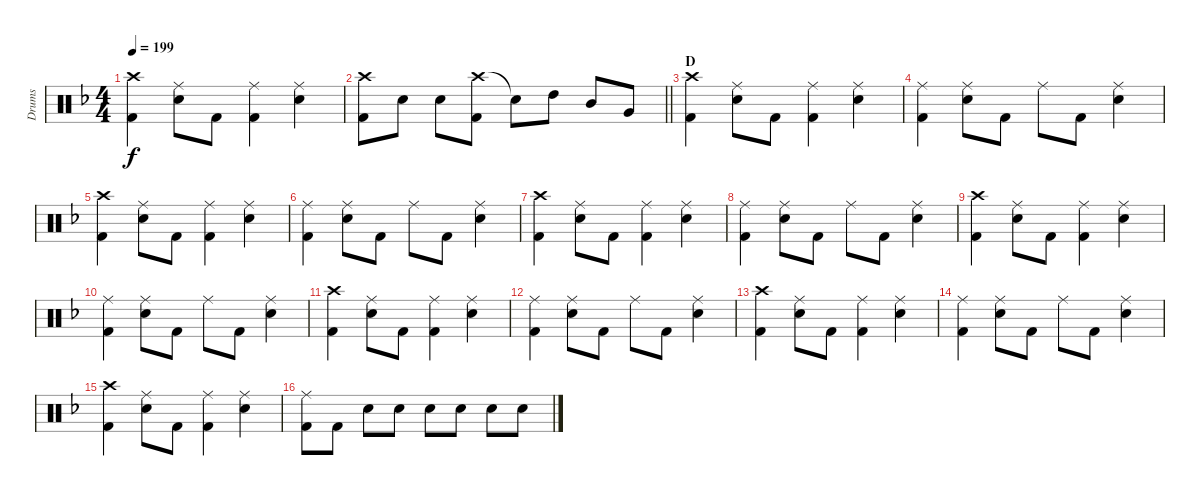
\track ("Drums" "Drums") {instrument percussion}
\staff {score}
\articulation defaults
\ts (4 4)
\tempo 199
\clef neutral
\ks f
("Crash high (hit)" "Kick (hit) 2").4{dy f} ("Ride (middle)" "Snare (hit) 2").8 "Kick (hit) 2".8 ("Ride (middle)" "Kick (hit) 2").4 ("Ride (middle)" "Snare (hit) 2").4 |
\barLineRight lightlight
("Crash high (hit)" "Kick (hit) 2").8 "Snare (hit) 2".8 "Snare (hit) 2".8 ("Crash high (hit)" "Kick (hit) 2").8 "Snare (hit)"{t}.8 "High Tom (hit)".8 "Mid Tom (hit)".8 "Very Low Tom (hit)".8 |
\section ("" "D")
("Crash high (hit)" "Kick (hit) 2").4 ("Ride (middle)" "Snare (hit) 2").8 "Kick (hit) 2".8 ("Ride (middle)" "Kick (hit) 2").4 ("Ride (middle)" "Snare (hit) 2").4 |
("Ride (middle)" "Kick (hit) 2").4 ("Ride (middle)" "Snare (hit) 2").8 "Kick (hit) 2".8 "Ride (middle)".8 "Kick (hit) 2".8 ("Ride (middle)" "Snare (hit) 2").4 |
("Crash high (hit)" "Kick (hit) 2").4 ("Ride (middle)" "Snare (hit) 2").8 "Kick (hit) 2".8 ("Ride (middle)" "Kick (hit) 2").4 ("Ride (middle)" "Snare (hit) 2").4 |
("Ride (middle)" "Kick (hit) 2").4 ("Ride (middle)" "Snare (hit) 2").8 "Kick (hit) 2".8 "Ride (middle)".8 "Kick (hit) 2".8 ("Ride (middle)" "Snare (hit) 2").4 |
("Crash high (hit)" "Kick (hit) 2").4 ("Ride (middle)" "Snare (hit) 2").8 "Kick (hit) 2".8 ("Ride (middle)" "Kick (hit) 2").4 ("Ride (middle)" "Snare (hit) 2").4 |
("Ride (middle)" "Kick (hit) 2").4 ("Ride (middle)" "Snare (hit) 2").8 "Kick (hit) 2".8 "Ride (middle)".8 "Kick (hit) 2".8 ("Ride (middle)" "Snare (hit) 2").4 |
("Crash high (hit)" "Kick (hit) 2").4 ("Ride (middle)" "Snare (hit) 2").8 "Kick (hit) 2".8 ("Ride (middle)" "Kick (hit) 2").4 ("Ride (middle)" "Snare (hit) 2").4 |
("Ride (middle)" "Kick (hit) 2").4 ("Ride (middle)" "Snare (hit) 2").8 "Kick (hit) 2".8 "Ride (middle)".8 "Kick (hit) 2".8 ("Ride (middle)" "Snare (hit) 2").4 |
("Crash high (hit)" "Kick (hit) 2").4 ("Ride (middle)" "Snare (hit) 2").8 "Kick (hit) 2".8 ("Ride (middle)" "Kick (hit) 2").4 ("Ride (middle)" "Snare (hit) 2").4 |
("Ride (middle)" "Kick (hit) 2").4 ("Ride (middle)" "Snare (hit) 2").8 "Kick (hit) 2".8 "Ride (middle)".8 "Kick (hit) 2".8 ("Ride (middle)" "Snare (hit) 2").4 |
("Crash high (hit)" "Kick (hit) 2").4 ("Ride (middle)" "Snare (hit) 2").8 "Kick (hit) 2".8 ("Ride (middle)" "Kick (hit) 2").4 ("Ride (middle)" "Snare (hit) 2").4 |
("Ride (middle)" "Kick (hit) 2").4 ("Ride (middle)" "Snare (hit) 2").8 "Kick (hit) 2".8 "Ride (middle)".8 "Kick (hit) 2".8 ("Ride (middle)" "Snare (hit) 2").4 |
("Crash high (hit)" "Kick (hit) 2").4 ("Ride (middle)" "Snare (hit) 2").8 "Kick (hit) 2".8 ("Ride (middle)" "Kick (hit) 2").4 ("Ride (middle)" "Snare (hit) 2").4 |
("Ride (middle)" "Kick (hit) 2").8 "Kick (hit) 2".8 "Snare (hit) 2".8 "Snare (hit) 2".8 "Snare (hit) 2".8 "Snare (hit) 2".8 "Snare (hit) 2".8 "Snare (hit) 2".8
